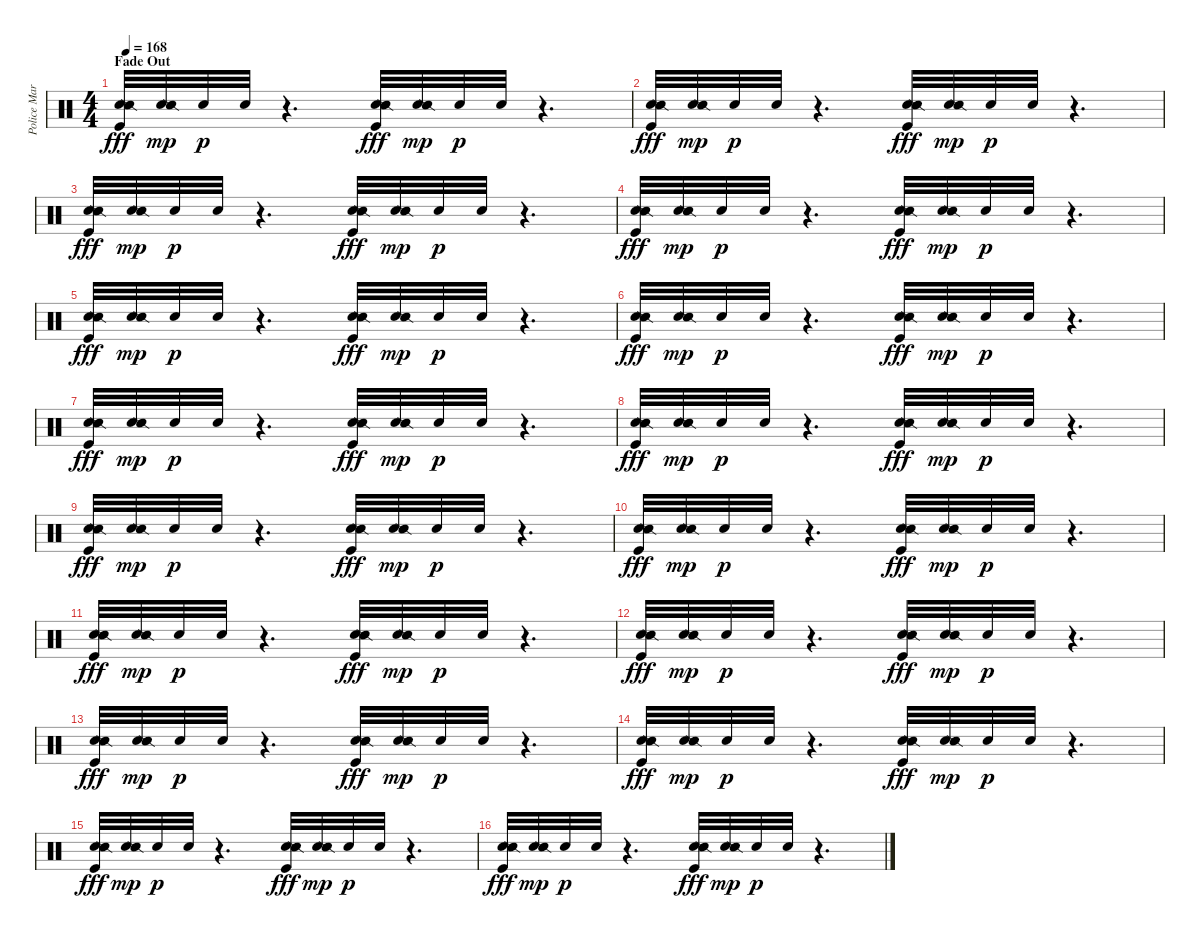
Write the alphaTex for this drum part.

\track ("Police March 1" "Police Mar") {instrument percussion}
\staff {score}
\articulation defaults
\ts (4 4)
\section ("" "Fade Out")
\tempo 168
\clef neutral
\ks c
("Hand Clap (hit)" "Snare (side stick) 2" "Kick (hit)").32{dy fff} ("Hand Clap (hit)" "Snare (side stick) 2").32{dy mp} "Hand Clap (hit)".32{dy p} "Hand Clap (hit)".32 r.4{d} ("Hand Clap (hit)" "Snare (side stick) 2" "Kick (hit)").32{dy fff} ("Hand Clap (hit)" "Snare (side stick) 2").32{dy mp} "Hand Clap (hit)".32{dy p} "Hand Clap (hit)".32 r.4{d} |
("Hand Clap (hit)" "Snare (side stick) 2" "Kick (hit)").32{dy fff} ("Hand Clap (hit)" "Snare (side stick) 2").32{dy mp} "Hand Clap (hit)".32{dy p} "Hand Clap (hit)".32 r.4{d} ("Hand Clap (hit)" "Snare (side stick) 2" "Kick (hit)").32{dy fff} ("Hand Clap (hit)" "Snare (side stick) 2").32{dy mp} "Hand Clap (hit)".32{dy p} "Hand Clap (hit)".32 r.4{d} |
("Hand Clap (hit)" "Snare (side stick) 2" "Kick (hit)").32{dy fff} ("Hand Clap (hit)" "Snare (side stick) 2").32{dy mp} "Hand Clap (hit)".32{dy p} "Hand Clap (hit)".32 r.4{d} ("Hand Clap (hit)" "Snare (side stick) 2" "Kick (hit)").32{dy fff} ("Hand Clap (hit)" "Snare (side stick) 2").32{dy mp} "Hand Clap (hit)".32{dy p} "Hand Clap (hit)".32 r.4{d} |
("Hand Clap (hit)" "Snare (side stick) 2" "Kick (hit)").32{dy fff} ("Hand Clap (hit)" "Snare (side stick) 2").32{dy mp} "Hand Clap (hit)".32{dy p} "Hand Clap (hit)".32 r.4{d} ("Hand Clap (hit)" "Snare (side stick) 2" "Kick (hit)").32{dy fff} ("Hand Clap (hit)" "Snare (side stick) 2").32{dy mp} "Hand Clap (hit)".32{dy p} "Hand Clap (hit)".32 r.4{d} |
("Hand Clap (hit)" "Snare (side stick) 2" "Kick (hit)").32{dy fff} ("Hand Clap (hit)" "Snare (side stick) 2").32{dy mp} "Hand Clap (hit)".32{dy p} "Hand Clap (hit)".32 r.4{d} ("Hand Clap (hit)" "Snare (side stick) 2" "Kick (hit)").32{dy fff} ("Hand Clap (hit)" "Snare (side stick) 2").32{dy mp} "Hand Clap (hit)".32{dy p} "Hand Clap (hit)".32 r.4{d} |
("Hand Clap (hit)" "Snare (side stick) 2" "Kick (hit)").32{dy fff} ("Hand Clap (hit)" "Snare (side stick) 2").32{dy mp} "Hand Clap (hit)".32{dy p} "Hand Clap (hit)".32 r.4{d} ("Hand Clap (hit)" "Snare (side stick) 2" "Kick (hit)").32{dy fff} ("Hand Clap (hit)" "Snare (side stick) 2").32{dy mp} "Hand Clap (hit)".32{dy p} "Hand Clap (hit)".32 r.4{d} |
("Hand Clap (hit)" "Snare (side stick) 2" "Kick (hit)").32{dy fff} ("Hand Clap (hit)" "Snare (side stick) 2").32{dy mp} "Hand Clap (hit)".32{dy p} "Hand Clap (hit)".32 r.4{d} ("Hand Clap (hit)" "Snare (side stick) 2" "Kick (hit)").32{dy fff} ("Hand Clap (hit)" "Snare (side stick) 2").32{dy mp} "Hand Clap (hit)".32{dy p} "Hand Clap (hit)".32 r.4{d} |
("Hand Clap (hit)" "Snare (side stick) 2" "Kick (hit)").32{dy fff} ("Hand Clap (hit)" "Snare (side stick) 2").32{dy mp} "Hand Clap (hit)".32{dy p} "Hand Clap (hit)".32 r.4{d} ("Hand Clap (hit)" "Snare (side stick) 2" "Kick (hit)").32{dy fff} ("Hand Clap (hit)" "Snare (side stick) 2").32{dy mp} "Hand Clap (hit)".32{dy p} "Hand Clap (hit)".32 r.4{d} |
("Hand Clap (hit)" "Snare (side stick) 2" "Kick (hit)").32{dy fff} ("Hand Clap (hit)" "Snare (side stick) 2").32{dy mp} "Hand Clap (hit)".32{dy p} "Hand Clap (hit)".32 r.4{d} ("Hand Clap (hit)" "Snare (side stick) 2" "Kick (hit)").32{dy fff} ("Hand Clap (hit)" "Snare (side stick) 2").32{dy mp} "Hand Clap (hit)".32{dy p} "Hand Clap (hit)".32 r.4{d} |
("Hand Clap (hit)" "Snare (side stick) 2" "Kick (hit)").32{dy fff} ("Hand Clap (hit)" "Snare (side stick) 2").32{dy mp} "Hand Clap (hit)".32{dy p} "Hand Clap (hit)".32 r.4{d} ("Hand Clap (hit)" "Snare (side stick) 2" "Kick (hit)").32{dy fff} ("Hand Clap (hit)" "Snare (side stick) 2").32{dy mp} "Hand Clap (hit)".32{dy p} "Hand Clap (hit)".32 r.4{d} |
("Hand Clap (hit)" "Snare (side stick) 2" "Kick (hit)").32{dy fff} ("Hand Clap (hit)" "Snare (side stick) 2").32{dy mp} "Hand Clap (hit)".32{dy p} "Hand Clap (hit)".32 r.4{d} ("Hand Clap (hit)" "Snare (side stick) 2" "Kick (hit)").32{dy fff} ("Hand Clap (hit)" "Snare (side stick) 2").32{dy mp} "Hand Clap (hit)".32{dy p} "Hand Clap (hit)".32 r.4{d} |
("Hand Clap (hit)" "Snare (side stick) 2" "Kick (hit)").32{dy fff} ("Hand Clap (hit)" "Snare (side stick) 2").32{dy mp} "Hand Clap (hit)".32{dy p} "Hand Clap (hit)".32 r.4{d} ("Hand Clap (hit)" "Snare (side stick) 2" "Kick (hit)").32{dy fff} ("Hand Clap (hit)" "Snare (side stick) 2").32{dy mp} "Hand Clap (hit)".32{dy p} "Hand Clap (hit)".32 r.4{d} |
("Hand Clap (hit)" "Snare (side stick) 2" "Kick (hit)").32{dy fff} ("Hand Clap (hit)" "Snare (side stick) 2").32{dy mp} "Hand Clap (hit)".32{dy p} "Hand Clap (hit)".32 r.4{d} ("Hand Clap (hit)" "Snare (side stick) 2" "Kick (hit)").32{dy fff} ("Hand Clap (hit)" "Snare (side stick) 2").32{dy mp} "Hand Clap (hit)".32{dy p} "Hand Clap (hit)".32 r.4{d} |
("Hand Clap (hit)" "Snare (side stick) 2" "Kick (hit)").32{dy fff} ("Hand Clap (hit)" "Snare (side stick) 2").32{dy mp} "Hand Clap (hit)".32{dy p} "Hand Clap (hit)".32 r.4{d} ("Hand Clap (hit)" "Snare (side stick) 2" "Kick (hit)").32{dy fff} ("Hand Clap (hit)" "Snare (side stick) 2").32{dy mp} "Hand Clap (hit)".32{dy p} "Hand Clap (hit)".32 r.4{d} |
("Hand Clap (hit)" "Snare (side stick) 2" "Kick (hit)").32{dy fff} ("Hand Clap (hit)" "Snare (side stick) 2").32{dy mp} "Hand Clap (hit)".32{dy p} "Hand Clap (hit)".32 r.4{d} ("Hand Clap (hit)" "Snare (side stick) 2" "Kick (hit)").32{dy fff} ("Hand Clap (hit)" "Snare (side stick) 2").32{dy mp} "Hand Clap (hit)".32{dy p} "Hand Clap (hit)".32 r.4{d} |
("Hand Clap (hit)" "Snare (side stick) 2" "Kick (hit)").32{dy fff} ("Hand Clap (hit)" "Snare (side stick) 2").32{dy mp} "Hand Clap (hit)".32{dy p} "Hand Clap (hit)".32 r.4{d} ("Hand Clap (hit)" "Snare (side stick) 2" "Kick (hit)").32{dy fff} ("Hand Clap (hit)" "Snare (side stick) 2").32{dy mp} "Hand Clap (hit)".32{dy p} "Hand Clap (hit)".32 r.4{d}
